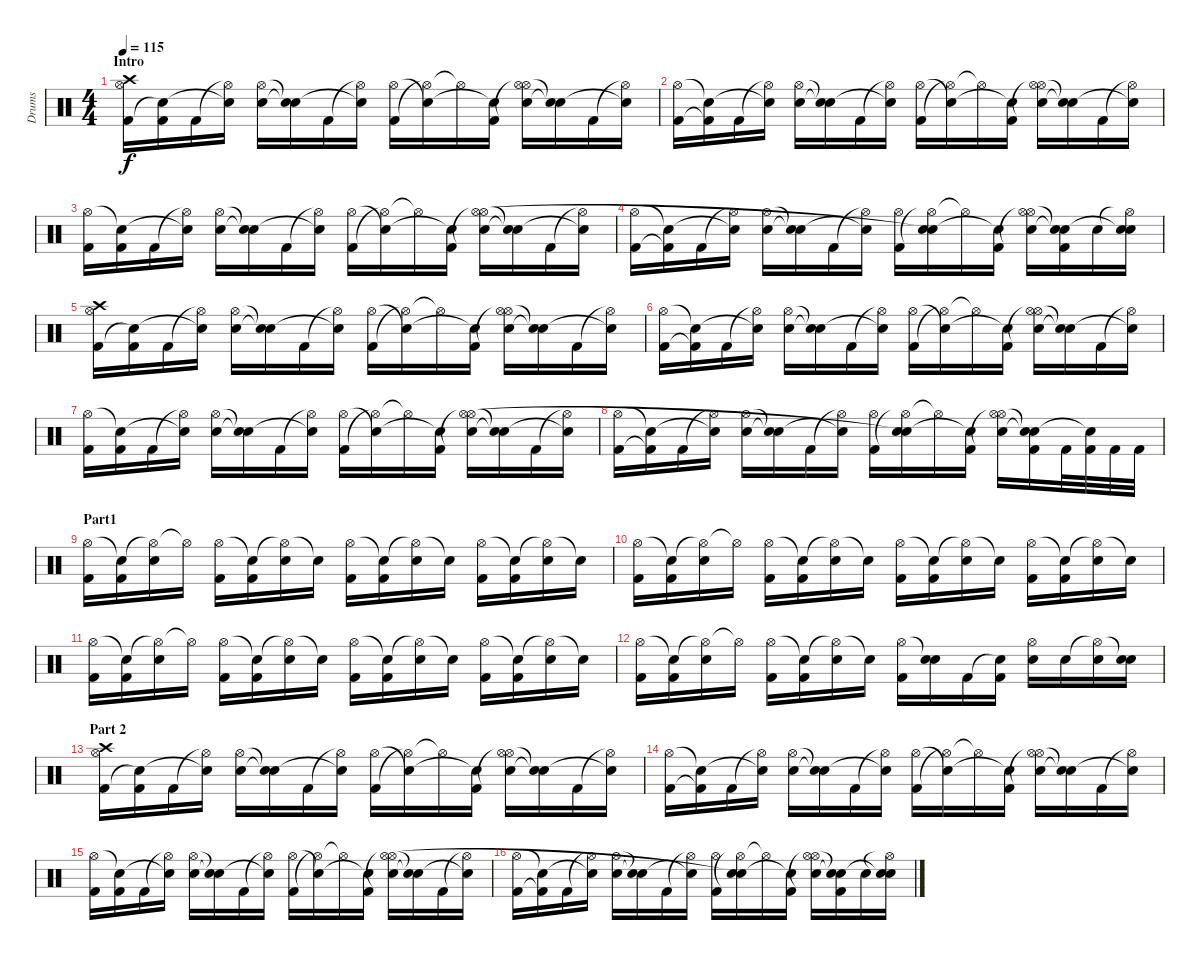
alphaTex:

\track ("Drums" "Drums") {instrument percussion}
\staff {score}
\articulation defaults
\ts (4 4)
\section ("" "Intro")
\tempo 115
\clef neutral
\ks c
("Crash high (hit)" "Kick (hit) 2" "Hi-Hat (open)").16{dy f} ("Kick (hit) 2" "Snare (hit)"{t}).16 "Kick (hit) 2".16 ("Hi-Hat (open)"{t} "Snare (hit)"{t}).16 ("Electric Snare (hit)" "Hi-Hat (open)").16 ("Snare (hit)"{t} "Snare (hit)"{t}).16 "Kick (hit) 2".16 ("Hi-Hat (open)"{t} "Snare (hit)"{t}).16 ("Kick (hit) 2" "Hi-Hat (open)").16 ("Hi-Hat (open)"{t} "Snare (hit)"{t}).16 "Hi-Hat (open)"{t}.16 ("Kick (hit) 2" "Snare (hit)"{t}).16 ("Hi-Hat (open)"{t} "Electric Snare (hit)" "Hi-Hat (open)").16 ("Electric Snare (hit)"{t} "Snare (hit)"{t}).16 "Kick (hit) 2".16 ("Hi-Hat (open)"{t} "Snare (hit)"{t}).16 |
("Kick (hit) 2" "Hi-Hat (open)").16 ("Kick (hit) 2"{t} "Snare (hit)"{t}).16 "Kick (hit) 2".16 ("Hi-Hat (open)"{t} "Snare (hit)"{t}).16 ("Electric Snare (hit)" "Hi-Hat (open)").16 ("Snare (hit)"{t} "Snare (hit)"{t}).16 "Kick (hit) 2".16 ("Hi-Hat (open)"{t} "Snare (hit)"{t}).16 ("Kick (hit) 2" "Hi-Hat (open)").16 ("Hi-Hat (open)"{t} "Snare (hit)"{t}).16 "Hi-Hat (open)"{t}.16 ("Kick (hit) 2" "Snare (hit)"{t}).16 ("Hi-Hat (open)"{t} "Electric Snare (hit)" "Hi-Hat (open)").16 ("Electric Snare (hit)"{t} "Snare (hit)"{t}).16 "Kick (hit) 2".16 ("Hi-Hat (open)"{t} "Snare (hit)"{t}).16 |
("Kick (hit) 2" "Hi-Hat (open)").16 ("Kick (hit) 2" "Snare (hit)"{t}).16 "Kick (hit) 2".16 ("Hi-Hat (open)"{t} "Snare (hit)"{t}).16 ("Electric Snare (hit)" "Hi-Hat (open)").16 ("Snare (hit)"{t} "Snare (hit)"{t}).16 "Kick (hit) 2".16 ("Hi-Hat (open)"{t} "Snare (hit)"{t}).16 ("Kick (hit) 2" "Hi-Hat (open)").16 ("Hi-Hat (open)"{t} "Snare (hit)"{t}).16 "Hi-Hat (open)"{t}.16 ("Kick (hit) 2" "Snare (hit)"{t}).16 ("Hi-Hat (open)"{t} "Electric Snare (hit)" "Hi-Hat (open)").16 ("Electric Snare (hit)"{t} "Snare (hit)"{t}).16 "Kick (hit) 2".16 ("Hi-Hat (open)"{t} "Snare (hit)"{t}).16 |
("Kick (hit) 2" "Hi-Hat (open)").16 ("Kick (hit) 2"{t} "Snare (hit)"{t}).16 "Kick (hit) 2".16 ("Hi-Hat (open)"{t} "Snare (hit)"{t}).16 ("Electric Snare (hit)" "Hi-Hat (open)").16 ("Snare (hit)"{t} "Snare (hit)"{t}).16 "Kick (hit) 2".16 ("Hi-Hat (open)"{t} "Snare (hit)"{t}).16 ("Kick (hit) 2" "Hi-Hat (open)").16 ("Hi-Hat (open)"{t} "Electric Snare (hit)" "Snare (hit)"{t}).16 "Hi-Hat (open)"{t}.16 ("Kick (hit) 2" "Snare (hit)"{t}).16 ("Hi-Hat (open)"{t} "Electric Snare (hit)" "Hi-Hat (open)").16 ("Kick (hit) 2" "Electric Snare (hit)"{t} "Snare (hit)"{t}).16 "Electric Snare (hit)".16 ("Hi-Hat (open)"{t} "Electric Snare (hit)" "Snare (hit)"{t}).16 |
("Crash high (hit)" "Kick (hit) 2" "Hi-Hat (open)").16 ("Kick (hit) 2" "Snare (hit)"{t}).16 "Kick (hit) 2".16 ("Hi-Hat (open)"{t} "Snare (hit)"{t}).16 ("Electric Snare (hit)" "Hi-Hat (open)").16 ("Snare (hit)"{t} "Snare (hit)"{t}).16 "Kick (hit) 2".16 ("Hi-Hat (open)"{t} "Snare (hit)"{t}).16 ("Kick (hit) 2" "Hi-Hat (open)").16 ("Hi-Hat (open)"{t} "Snare (hit)"{t}).16 "Hi-Hat (open)"{t}.16 ("Kick (hit) 2" "Snare (hit)"{t}).16 ("Hi-Hat (open)"{t} "Electric Snare (hit)" "Hi-Hat (open)").16 ("Electric Snare (hit)"{t} "Snare (hit)"{t}).16 "Kick (hit) 2".16 ("Hi-Hat (open)"{t} "Snare (hit)"{t}).16 |
("Kick (hit) 2" "Hi-Hat (open)").16 ("Kick (hit) 2"{t} "Snare (hit)"{t}).16 "Kick (hit) 2".16 ("Hi-Hat (open)"{t} "Snare (hit)"{t}).16 ("Electric Snare (hit)" "Hi-Hat (open)").16 ("Snare (hit)"{t} "Snare (hit)"{t}).16 "Kick (hit) 2".16 ("Hi-Hat (open)"{t} "Snare (hit)"{t}).16 ("Kick (hit) 2" "Hi-Hat (open)").16 ("Hi-Hat (open)"{t} "Snare (hit)"{t}).16 "Hi-Hat (open)"{t}.16 ("Kick (hit) 2" "Snare (hit)"{t}).16 ("Hi-Hat (open)"{t} "Electric Snare (hit)" "Hi-Hat (open)").16 ("Electric Snare (hit)"{t} "Snare (hit)"{t}).16 "Kick (hit) 2".16 ("Hi-Hat (open)"{t} "Snare (hit)"{t}).16 |
("Kick (hit) 2" "Hi-Hat (open)").16 ("Kick (hit) 2" "Snare (hit)"{t}).16 "Kick (hit) 2".16 ("Hi-Hat (open)"{t} "Snare (hit)"{t}).16 ("Electric Snare (hit)" "Hi-Hat (open)").16 ("Snare (hit)"{t} "Snare (hit)"{t}).16 "Kick (hit) 2".16 ("Hi-Hat (open)"{t} "Snare (hit)"{t}).16 ("Kick (hit) 2" "Hi-Hat (open)").16 ("Hi-Hat (open)"{t} "Snare (hit)"{t}).16 "Hi-Hat (open)"{t}.16 ("Kick (hit) 2" "Snare (hit)"{t}).16 ("Hi-Hat (open)"{t} "Electric Snare (hit)" "Hi-Hat (open)").16 ("Electric Snare (hit)"{t} "Snare (hit)"{t}).16 "Kick (hit) 2".16 ("Hi-Hat (open)"{t} "Snare (hit)"{t}).16 |
("Kick (hit) 2" "Hi-Hat (open)").16 ("Kick (hit) 2"{t} "Snare (hit)"{t}).16 "Kick (hit) 2".16 ("Hi-Hat (open)"{t} "Snare (hit)"{t}).16 ("Electric Snare (hit)" "Hi-Hat (open)").16 ("Snare (hit)"{t} "Snare (hit)"{t}).16 "Kick (hit) 2".16 ("Hi-Hat (open)"{t} "Snare (hit)"{t}).16 ("Kick (hit) 2" "Hi-Hat (open)").16 ("Hi-Hat (open)"{t} "Electric Snare (hit)" "Snare (hit)"{t}).16 "Hi-Hat (open)"{t}.16 ("Kick (hit) 2" "Snare (hit)"{t}).16 ("Hi-Hat (open)"{t} "Electric Snare (hit)" "Hi-Hat (open)").16 ("Kick (hit) 2" "Electric Snare (hit)"{t} "Snare (hit)"{t}).16 "Kick (hit) 2".32 ("Kick (hit) 2" "Snare (hit)"{t}).32 "Kick (hit) 2".32 "Kick (hit) 2".32 |
\section ("" "Part1")
("Hi-Hat (open)" "Kick (hit) 2").16 ("Snare (hit)"{t} "Kick (hit) 2").16 ("Hi-Hat (open)"{t} "Electric Snare (hit)").16 "Hi-Hat (open)"{t}.16 ("Hi-Hat (open)" "Kick (hit) 2").16 ("Snare (hit)"{t} "Kick (hit) 2").16 ("Hi-Hat (open)"{t} "Electric Snare (hit)").16 "Snare (hit)"{t}.16 ("Hi-Hat (open)" "Kick (hit) 2").16 ("Snare (hit)"{t} "Kick (hit) 2").16 ("Hi-Hat (open)"{t} "Electric Snare (hit)").16 "Snare (hit)"{t}.16 ("Hi-Hat (open)" "Kick (hit) 2").16 ("Snare (hit)"{t} "Kick (hit) 2").16 ("Hi-Hat (open)"{t} "Electric Snare (hit)").16 "Snare (hit)"{t}.16 |
("Hi-Hat (open)" "Kick (hit) 2").16 ("Snare (hit)"{t} "Kick (hit) 2").16 ("Hi-Hat (open)"{t} "Electric Snare (hit)").16 "Hi-Hat (open)"{t}.16 ("Hi-Hat (open)" "Kick (hit) 2").16 ("Snare (hit)"{t} "Kick (hit) 2").16 ("Hi-Hat (open)"{t} "Electric Snare (hit)").16 "Snare (hit)"{t}.16 ("Hi-Hat (open)" "Kick (hit) 2").16 ("Snare (hit)"{t} "Kick (hit) 2").16 ("Hi-Hat (open)"{t} "Electric Snare (hit)").16 "Snare (hit)"{t}.16 ("Hi-Hat (open)" "Kick (hit) 2").16 ("Snare (hit)"{t} "Kick (hit) 2").16 ("Hi-Hat (open)"{t} "Electric Snare (hit)").16 "Snare (hit)"{t}.16 |
("Hi-Hat (open)" "Kick (hit) 2").16 ("Snare (hit)"{t} "Kick (hit) 2").16 ("Hi-Hat (open)"{t} "Electric Snare (hit)").16 "Hi-Hat (open)"{t}.16 ("Hi-Hat (open)" "Kick (hit) 2").16 ("Snare (hit)"{t} "Kick (hit) 2").16 ("Hi-Hat (open)"{t} "Electric Snare (hit)").16 "Snare (hit)"{t}.16 ("Hi-Hat (open)" "Kick (hit) 2").16 ("Snare (hit)"{t} "Kick (hit) 2").16 ("Hi-Hat (open)"{t} "Electric Snare (hit)").16 "Snare (hit)"{t}.16 ("Hi-Hat (open)" "Kick (hit) 2").16 ("Snare (hit)"{t} "Kick (hit) 2").16 ("Hi-Hat (open)"{t} "Electric Snare (hit)").16 "Snare (hit)"{t}.16 |
("Hi-Hat (open)" "Kick (hit) 2").16 ("Snare (hit)"{t} "Kick (hit) 2").16 ("Hi-Hat (open)"{t} "Electric Snare (hit)").16 "Hi-Hat (open)"{t}.16 ("Hi-Hat (open)" "Kick (hit) 2").16 ("Snare (hit)"{t} "Kick (hit) 2").16 ("Hi-Hat (open)"{t} "Electric Snare (hit)").16 "Snare (hit)"{t}.16 ("Hi-Hat (open)" "Kick (hit) 2").16 ("Snare (hit)"{t} "Electric Snare (hit)").16 "Kick (hit) 2".16 ("Snare (hit)"{t} "Kick (hit) 2").16 ("Hi-Hat (open)" "Electric Snare (hit)").16 "Electric Snare (hit)".16 ("Hi-Hat (open)"{t} "Electric Snare (hit)").16 ("Snare (hit)"{t} "Electric Snare (hit)").16 |
\section ("" "Part 2")
("Crash high (hit)" "Kick (hit) 2" "Hi-Hat (open)").16 ("Kick (hit) 2" "Snare (hit)"{t}).16 "Kick (hit) 2".16 ("Hi-Hat (open)"{t} "Snare (hit)"{t}).16 ("Electric Snare (hit)" "Hi-Hat (open)").16 ("Snare (hit)"{t} "Snare (hit)"{t}).16 "Kick (hit) 2".16 ("Hi-Hat (open)"{t} "Snare (hit)"{t}).16 ("Kick (hit) 2" "Hi-Hat (open)").16 ("Hi-Hat (open)"{t} "Snare (hit)"{t}).16 "Hi-Hat (open)"{t}.16 ("Kick (hit) 2" "Snare (hit)"{t}).16 ("Hi-Hat (open)"{t} "Electric Snare (hit)" "Hi-Hat (open)").16 ("Electric Snare (hit)"{t} "Snare (hit)"{t}).16 "Kick (hit) 2".16 ("Hi-Hat (open)"{t} "Snare (hit)"{t}).16 |
("Kick (hit) 2" "Hi-Hat (open)").16 ("Kick (hit) 2"{t} "Snare (hit)"{t}).16 "Kick (hit) 2".16 ("Hi-Hat (open)"{t} "Snare (hit)"{t}).16 ("Electric Snare (hit)" "Hi-Hat (open)").16 ("Snare (hit)"{t} "Snare (hit)"{t}).16 "Kick (hit) 2".16 ("Hi-Hat (open)"{t} "Snare (hit)"{t}).16 ("Kick (hit) 2" "Hi-Hat (open)").16 ("Hi-Hat (open)"{t} "Snare (hit)"{t}).16 "Hi-Hat (open)"{t}.16 ("Kick (hit) 2" "Snare (hit)"{t}).16 ("Hi-Hat (open)"{t} "Electric Snare (hit)" "Hi-Hat (open)").16 ("Electric Snare (hit)"{t} "Snare (hit)"{t}).16 "Kick (hit) 2".16 ("Hi-Hat (open)"{t} "Snare (hit)"{t}).16 |
("Kick (hit) 2" "Hi-Hat (open)").16 ("Kick (hit) 2" "Snare (hit)"{t}).16 "Kick (hit) 2".16 ("Hi-Hat (open)"{t} "Snare (hit)"{t}).16 ("Electric Snare (hit)" "Hi-Hat (open)").16 ("Snare (hit)"{t} "Snare (hit)"{t}).16 "Kick (hit) 2".16 ("Hi-Hat (open)"{t} "Snare (hit)"{t}).16 ("Kick (hit) 2" "Hi-Hat (open)").16 ("Hi-Hat (open)"{t} "Snare (hit)"{t}).16 "Hi-Hat (open)"{t}.16 ("Kick (hit) 2" "Snare (hit)"{t}).16 ("Hi-Hat (open)"{t} "Electric Snare (hit)" "Hi-Hat (open)").16 ("Electric Snare (hit)"{t} "Snare (hit)"{t}).16 "Kick (hit) 2".16 ("Hi-Hat (open)"{t} "Snare (hit)"{t}).16 |
("Kick (hit) 2" "Hi-Hat (open)").16 ("Kick (hit) 2"{t} "Snare (hit)"{t}).16 "Kick (hit) 2".16 ("Hi-Hat (open)"{t} "Snare (hit)"{t}).16 ("Electric Snare (hit)" "Hi-Hat (open)").16 ("Snare (hit)"{t} "Snare (hit)"{t}).16 "Kick (hit) 2".16 ("Hi-Hat (open)"{t} "Snare (hit)"{t}).16 ("Kick (hit) 2" "Hi-Hat (open)").16 ("Hi-Hat (open)"{t} "Electric Snare (hit)" "Snare (hit)"{t}).16 "Hi-Hat (open)"{t}.16 ("Kick (hit) 2" "Snare (hit)"{t}).16 ("Hi-Hat (open)"{t} "Electric Snare (hit)" "Hi-Hat (open)").16 ("Kick (hit) 2" "Electric Snare (hit)"{t} "Snare (hit)"{t}).16 "Electric Snare (hit)".16 ("Hi-Hat (open)"{t} "Electric Snare (hit)" "Snare (hit)"{t}).16
